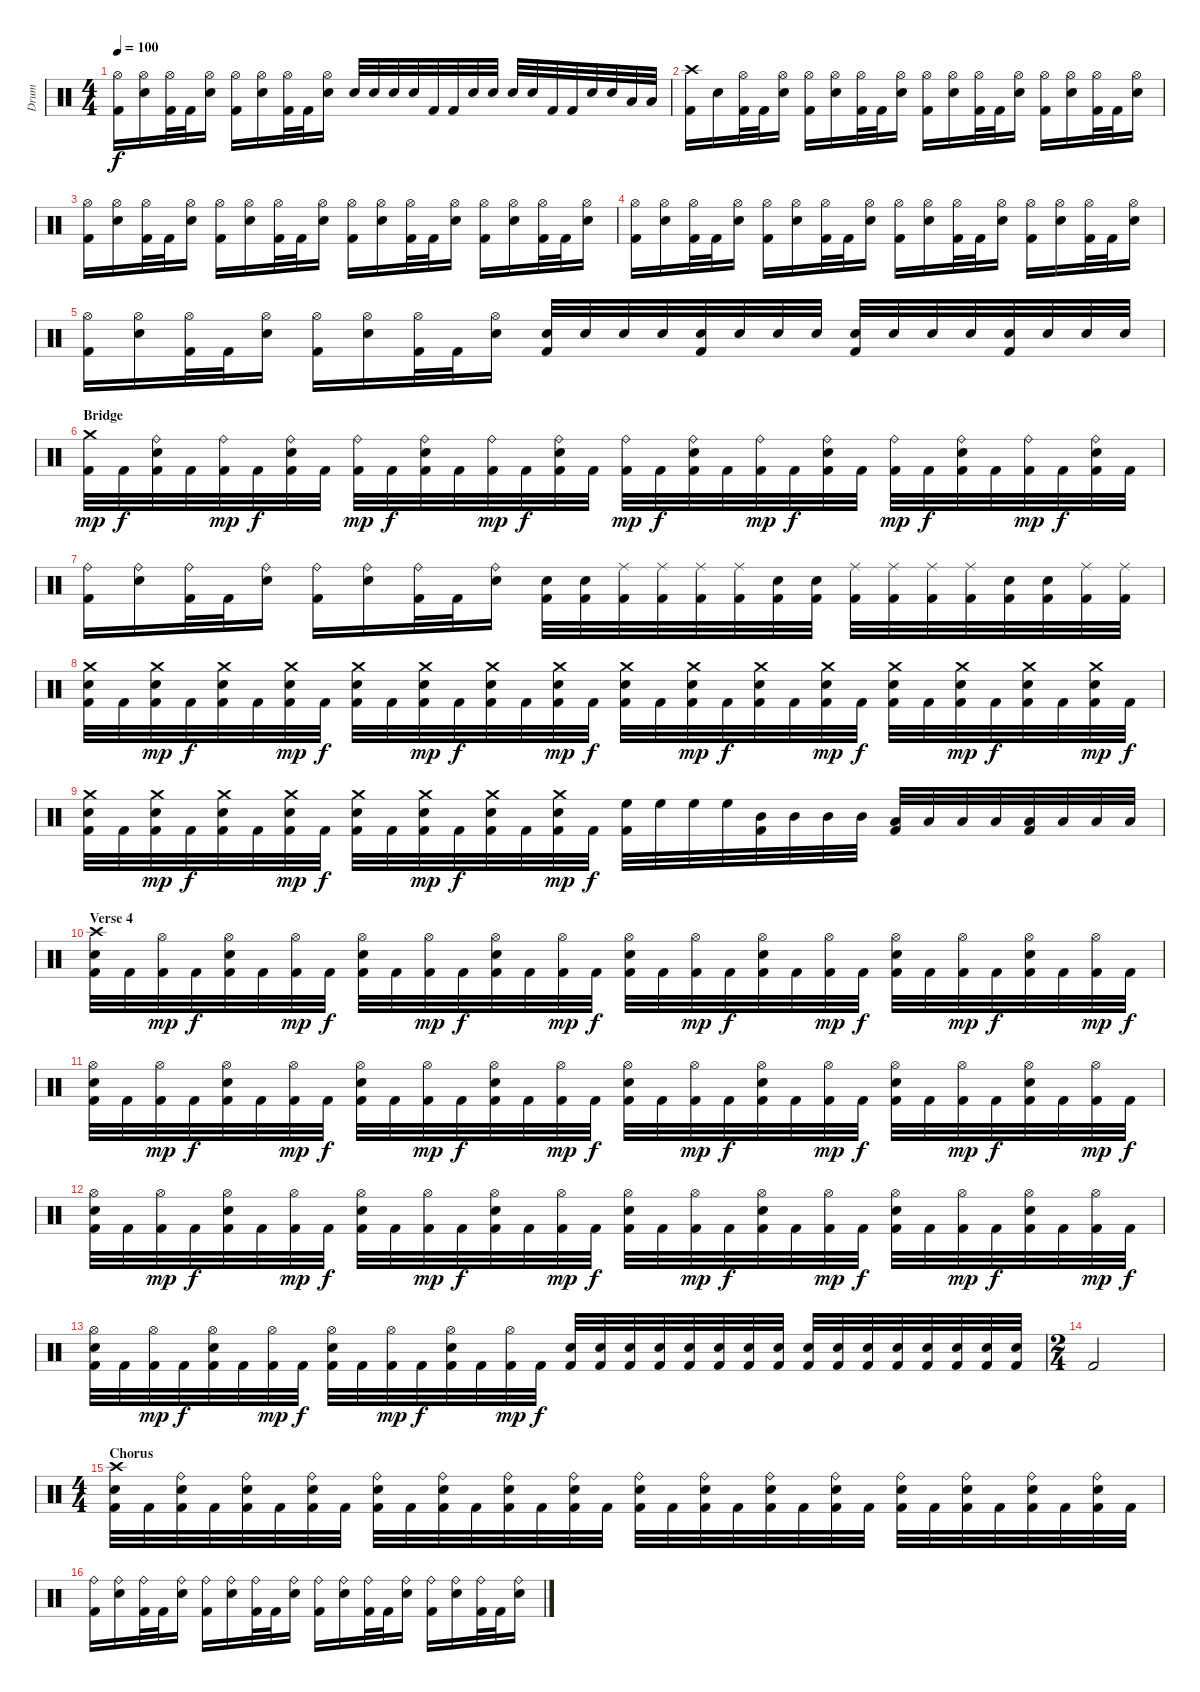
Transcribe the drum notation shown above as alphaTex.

\track ("Drum" "Drum") {instrument percussion}
\staff {score}
\articulation defaults
\ts (4 4)
\tempo 100
\clef neutral
\ks c
("Hi-Hat (open)" "Kick (hit) 2").16{dy f} ("Hi-Hat (open)" "Snare (hit) 2").16 ("Hi-Hat (open)" "Kick (hit) 2").32 "Kick (hit) 2".32 ("Hi-Hat (open)" "Snare (hit) 2").16 ("Hi-Hat (open)" "Kick (hit) 2").16 ("Hi-Hat (open)" "Snare (hit) 2").16 ("Hi-Hat (open)" "Kick (hit) 2").32 "Kick (hit) 2".32 ("Hi-Hat (open)" "Snare (hit) 2").16 "Snare (hit) 2".32 "Snare (hit) 2".32 "Snare (hit) 2".32 "Snare (hit) 2".32 "Kick (hit) 2".32 "Kick (hit) 2".32 "Snare (hit) 2".32 "Snare (hit) 2".32 "Snare (hit) 2".32 "Snare (hit) 2".32 "Kick (hit) 2".32 "Kick (hit) 2".32 "Snare (hit) 2".32 "Snare (hit) 2".32 "Low Floor Tom (hit)".32 "Low Floor Tom (hit)".32 |
("Crash high (hit)" "Kick (hit) 2").16 "Snare (hit) 2".16 ("Hi-Hat (open)" "Kick (hit) 2").32 "Kick (hit) 2".32 ("Hi-Hat (open)" "Snare (hit) 2").16 ("Hi-Hat (open)" "Kick (hit) 2").16 ("Hi-Hat (open)" "Snare (hit) 2").16 ("Hi-Hat (open)" "Kick (hit) 2").32 "Kick (hit) 2".32 ("Hi-Hat (open)" "Snare (hit) 2").16 ("Hi-Hat (open)" "Kick (hit) 2").16 ("Hi-Hat (open)" "Snare (hit) 2").16 ("Hi-Hat (open)" "Kick (hit) 2").32 "Kick (hit) 2".32 ("Hi-Hat (open)" "Snare (hit) 2").16 ("Hi-Hat (open)" "Kick (hit) 2").16 ("Hi-Hat (open)" "Snare (hit) 2").16 ("Hi-Hat (open)" "Kick (hit) 2").32 "Kick (hit) 2".32 ("Hi-Hat (open)" "Snare (hit) 2").16 |
("Hi-Hat (open)" "Kick (hit) 2").16 ("Hi-Hat (open)" "Snare (hit) 2").16 ("Hi-Hat (open)" "Kick (hit) 2").32 "Kick (hit) 2".32 ("Hi-Hat (open)" "Snare (hit) 2").16 ("Hi-Hat (open)" "Kick (hit) 2").16 ("Hi-Hat (open)" "Snare (hit) 2").16 ("Hi-Hat (open)" "Kick (hit) 2").32 "Kick (hit) 2".32 ("Hi-Hat (open)" "Snare (hit) 2").16 ("Hi-Hat (open)" "Kick (hit) 2").16 ("Hi-Hat (open)" "Snare (hit) 2").16 ("Hi-Hat (open)" "Kick (hit) 2").32 "Kick (hit) 2".32 ("Hi-Hat (open)" "Snare (hit) 2").16 ("Hi-Hat (open)" "Kick (hit) 2").16 ("Hi-Hat (open)" "Snare (hit) 2").16 ("Hi-Hat (open)" "Kick (hit) 2").32 "Kick (hit) 2".32 ("Hi-Hat (open)" "Snare (hit) 2").16 |
("Hi-Hat (open)" "Kick (hit) 2").16 ("Hi-Hat (open)" "Snare (hit) 2").16 ("Hi-Hat (open)" "Kick (hit) 2").32 "Kick (hit) 2".32 ("Hi-Hat (open)" "Snare (hit) 2").16 ("Hi-Hat (open)" "Kick (hit) 2").16 ("Hi-Hat (open)" "Snare (hit) 2").16 ("Hi-Hat (open)" "Kick (hit) 2").32 "Kick (hit) 2".32 ("Hi-Hat (open)" "Snare (hit) 2").16 ("Hi-Hat (open)" "Kick (hit) 2").16 ("Hi-Hat (open)" "Snare (hit) 2").16 ("Hi-Hat (open)" "Kick (hit) 2").32 "Kick (hit) 2".32 ("Hi-Hat (open)" "Snare (hit) 2").16 ("Hi-Hat (open)" "Kick (hit) 2").16 ("Hi-Hat (open)" "Snare (hit) 2").16 ("Hi-Hat (open)" "Kick (hit) 2").32 "Kick (hit) 2".32 ("Hi-Hat (open)" "Snare (hit) 2").16 |
("Hi-Hat (open)" "Kick (hit) 2").16 ("Hi-Hat (open)" "Snare (hit) 2").16 ("Hi-Hat (open)" "Kick (hit) 2").32 "Kick (hit) 2".32 ("Hi-Hat (open)" "Snare (hit) 2").16 ("Hi-Hat (open)" "Kick (hit) 2").16 ("Hi-Hat (open)" "Snare (hit) 2").16 ("Hi-Hat (open)" "Kick (hit) 2").32 "Kick (hit) 2".32 ("Hi-Hat (open)" "Snare (hit) 2").16 ("Snare (hit) 2" "Kick (hit) 2").32 "Snare (hit) 2".32 "Snare (hit) 2".32 "Snare (hit) 2".32 ("Snare (hit) 2" "Kick (hit) 2").32 "Snare (hit) 2".32 "Snare (hit) 2".32 "Snare (hit) 2".32 ("Snare (hit) 2" "Kick (hit) 2").32 "Snare (hit) 2".32 "Snare (hit) 2".32 "Snare (hit) 2".32 ("Snare (hit) 2" "Kick (hit) 2").32 "Snare (hit) 2".32 "Snare (hit) 2".32 "Snare (hit) 2".32 |
\section ("" "Bridge")
("Crash medium (hit)" "Kick (hit) 2").32{dy mp} "Kick (hit) 2".32{dy f} ("Ride (bell)" "Snare (hit) 2" "Kick (hit) 2").32 "Kick (hit) 2".32 ("Ride (bell)" "Kick (hit) 2").32{dy mp} "Kick (hit) 2".32{dy f} ("Ride (bell)" "Snare (hit) 2" "Kick (hit) 2").32 "Kick (hit) 2".32 ("Ride (bell)" "Kick (hit) 2").32{dy mp} "Kick (hit) 2".32{dy f} ("Ride (bell)" "Snare (hit) 2" "Kick (hit) 2").32 "Kick (hit) 2".32 ("Ride (bell)" "Kick (hit) 2").32{dy mp} "Kick (hit) 2".32{dy f} ("Ride (bell)" "Snare (hit) 2" "Kick (hit) 2").32 "Kick (hit) 2".32 ("Ride (bell)" "Kick (hit) 2").32{dy mp} "Kick (hit) 2".32{dy f} ("Ride (bell)" "Snare (hit) 2" "Kick (hit) 2").32 "Kick (hit) 2".32 ("Ride (bell)" "Kick (hit) 2").32{dy mp} "Kick (hit) 2".32{dy f} ("Ride (bell)" "Snare (hit) 2" "Kick (hit) 2").32 "Kick (hit) 2".32 ("Ride (bell)" "Kick (hit) 2").32{dy mp} "Kick (hit) 2".32{dy f} ("Ride (bell)" "Snare (hit) 2" "Kick (hit) 2").32 "Kick (hit) 2".32 ("Ride (bell)" "Kick (hit) 2").32{dy mp} "Kick (hit) 2".32{dy f} ("Ride (bell)" "Snare (hit) 2" "Kick (hit) 2").32 "Kick (hit) 2".32 |
("Ride (bell)" "Kick (hit) 2").16 ("Ride (bell)" "Snare (hit) 2").16 ("Ride (bell)" "Kick (hit) 2").32 "Kick (hit) 2".32 ("Ride (bell)" "Snare (hit) 2").16 ("Ride (bell)" "Kick (hit) 2").16 ("Ride (bell)" "Snare (hit) 2").16 ("Ride (bell)" "Kick (hit) 2").32 "Kick (hit) 2".32 ("Ride (bell)" "Snare (hit) 2").16 ("Snare (hit) 2" "Kick (hit) 2").32 ("Snare (hit) 2" "Kick (hit) 2").32 ("Ride (middle)" "Kick (hit) 2").32 ("Ride (middle)" "Kick (hit) 2").32 ("Ride (middle)" "Kick (hit) 2").32 ("Ride (middle)" "Kick (hit) 2").32 ("Snare (hit) 2" "Kick (hit) 2").32 ("Snare (hit) 2" "Kick (hit) 2").32 ("Ride (middle)" "Kick (hit) 2").32 ("Ride (middle)" "Kick (hit) 2").32 ("Ride (middle)" "Kick (hit) 2").32 ("Ride (middle)" "Kick (hit) 2").32 ("Snare (hit) 2" "Kick (hit) 2").32 ("Snare (hit) 2" "Kick (hit) 2").32 ("Ride (middle)" "Kick (hit) 2").32 ("Ride (middle)" "Kick (hit) 2").32 |
("Crash medium (hit)" "Snare (hit) 2" "Kick (hit) 2").32 "Kick (hit) 2".32 ("Crash medium (hit)" "Snare (hit) 2" "Kick (hit) 2").32{dy mp} "Kick (hit) 2".32{dy f} ("Crash medium (hit)" "Snare (hit) 2" "Kick (hit) 2").32 "Kick (hit) 2".32 ("Crash medium (hit)" "Snare (hit) 2" "Kick (hit) 2").32{dy mp} "Kick (hit) 2".32{dy f} ("Crash medium (hit)" "Snare (hit) 2" "Kick (hit) 2").32 "Kick (hit) 2".32 ("Crash medium (hit)" "Snare (hit) 2" "Kick (hit) 2").32{dy mp} "Kick (hit) 2".32{dy f} ("Crash medium (hit)" "Snare (hit) 2" "Kick (hit) 2").32 "Kick (hit) 2".32 ("Crash medium (hit)" "Snare (hit) 2" "Kick (hit) 2").32{dy mp} "Kick (hit) 2".32{dy f} ("Crash medium (hit)" "Snare (hit) 2" "Kick (hit) 2").32 "Kick (hit) 2".32 ("Crash medium (hit)" "Snare (hit) 2" "Kick (hit) 2").32{dy mp} "Kick (hit) 2".32{dy f} ("Crash medium (hit)" "Snare (hit) 2" "Kick (hit) 2").32 "Kick (hit) 2".32 ("Crash medium (hit)" "Snare (hit) 2" "Kick (hit) 2").32{dy mp} "Kick (hit) 2".32{dy f} ("Crash medium (hit)" "Snare (hit) 2" "Kick (hit) 2").32 "Kick (hit) 2".32 ("Crash medium (hit)" "Snare (hit) 2" "Kick (hit) 2").32{dy mp} "Kick (hit) 2".32{dy f} ("Crash medium (hit)" "Snare (hit) 2" "Kick (hit) 2").32 "Kick (hit) 2".32 ("Crash medium (hit)" "Snare (hit) 2" "Kick (hit) 2").32{dy mp} "Kick (hit) 2".32{dy f} |
("Crash medium (hit)" "Snare (hit) 2" "Kick (hit) 2").32 "Kick (hit) 2".32 ("Crash medium (hit)" "Snare (hit) 2" "Kick (hit) 2").32{dy mp} "Kick (hit) 2".32{dy f} ("Crash medium (hit)" "Snare (hit) 2" "Kick (hit) 2").32 "Kick (hit) 2".32 ("Crash medium (hit)" "Snare (hit) 2" "Kick (hit) 2").32{dy mp} "Kick (hit) 2".32{dy f} ("Crash medium (hit)" "Snare (hit) 2" "Kick (hit) 2").32 "Kick (hit) 2".32 ("Crash medium (hit)" "Snare (hit) 2" "Kick (hit) 2").32{dy mp} "Kick (hit) 2".32{dy f} ("Crash medium (hit)" "Snare (hit) 2" "Kick (hit) 2").32 "Kick (hit) 2".32 ("Crash medium (hit)" "Snare (hit) 2" "Kick (hit) 2").32{dy mp} "Kick (hit) 2".32{dy f} ("High Floor Tom (hit)" "Kick (hit) 2").32 "High Floor Tom (hit)".32 "High Floor Tom (hit)".32 "High Floor Tom (hit)".32 ("Mid Tom (hit)" "Kick (hit) 2").32 "Mid Tom (hit)".32 "Mid Tom (hit)".32 "Mid Tom (hit)".32 ("Low Tom (hit)" "Kick (hit) 2").32 "Low Tom (hit)".32 "Low Tom (hit)".32 "Low Tom (hit)".32 ("Low Floor Tom (hit)" "Kick (hit) 2").32 "Low Floor Tom (hit)".32 "Low Floor Tom (hit)".32 "Low Floor Tom (hit)".32 |
\section ("" "Verse 4")
("Crash high (hit)" "Snare (hit) 2" "Kick (hit) 2").32 "Kick (hit) 2".32 ("Hi-Hat (open)" "Kick (hit) 2").32{dy mp} "Kick (hit) 2".32{dy f} ("Hi-Hat (open)" "Snare (hit) 2" "Kick (hit) 2").32 "Kick (hit) 2".32 ("Hi-Hat (open)" "Kick (hit) 2").32{dy mp} "Kick (hit) 2".32{dy f} ("Hi-Hat (open)" "Snare (hit) 2" "Kick (hit) 2").32 "Kick (hit) 2".32 ("Hi-Hat (open)" "Kick (hit) 2").32{dy mp} "Kick (hit) 2".32{dy f} ("Hi-Hat (open)" "Snare (hit) 2" "Kick (hit) 2").32 "Kick (hit) 2".32 ("Hi-Hat (open)" "Kick (hit) 2").32{dy mp} "Kick (hit) 2".32{dy f} ("Hi-Hat (open)" "Snare (hit) 2" "Kick (hit) 2").32 "Kick (hit) 2".32 ("Hi-Hat (open)" "Kick (hit) 2").32{dy mp} "Kick (hit) 2".32{dy f} ("Hi-Hat (open)" "Snare (hit) 2" "Kick (hit) 2").32 "Kick (hit) 2".32 ("Hi-Hat (open)" "Kick (hit) 2").32{dy mp} "Kick (hit) 2".32{dy f} ("Hi-Hat (open)" "Snare (hit) 2" "Kick (hit) 2").32 "Kick (hit) 2".32 ("Hi-Hat (open)" "Kick (hit) 2").32{dy mp} "Kick (hit) 2".32{dy f} ("Hi-Hat (open)" "Snare (hit) 2" "Kick (hit) 2").32 "Kick (hit) 2".32 ("Hi-Hat (open)" "Kick (hit) 2").32{dy mp} "Kick (hit) 2".32{dy f} |
("Hi-Hat (open)" "Snare (hit) 2" "Kick (hit) 2").32 "Kick (hit) 2".32 ("Hi-Hat (open)" "Kick (hit) 2").32{dy mp} "Kick (hit) 2".32{dy f} ("Hi-Hat (open)" "Snare (hit) 2" "Kick (hit) 2").32 "Kick (hit) 2".32 ("Hi-Hat (open)" "Kick (hit) 2").32{dy mp} "Kick (hit) 2".32{dy f} ("Hi-Hat (open)" "Snare (hit) 2" "Kick (hit) 2").32 "Kick (hit) 2".32 ("Hi-Hat (open)" "Kick (hit) 2").32{dy mp} "Kick (hit) 2".32{dy f} ("Hi-Hat (open)" "Snare (hit) 2" "Kick (hit) 2").32 "Kick (hit) 2".32 ("Hi-Hat (open)" "Kick (hit) 2").32{dy mp} "Kick (hit) 2".32{dy f} ("Hi-Hat (open)" "Snare (hit) 2" "Kick (hit) 2").32 "Kick (hit) 2".32 ("Hi-Hat (open)" "Kick (hit) 2").32{dy mp} "Kick (hit) 2".32{dy f} ("Hi-Hat (open)" "Snare (hit) 2" "Kick (hit) 2").32 "Kick (hit) 2".32 ("Hi-Hat (open)" "Kick (hit) 2").32{dy mp} "Kick (hit) 2".32{dy f} ("Hi-Hat (open)" "Snare (hit) 2" "Kick (hit) 2").32 "Kick (hit) 2".32 ("Hi-Hat (open)" "Kick (hit) 2").32{dy mp} "Kick (hit) 2".32{dy f} ("Hi-Hat (open)" "Snare (hit) 2" "Kick (hit) 2").32 "Kick (hit) 2".32 ("Hi-Hat (open)" "Kick (hit) 2").32{dy mp} "Kick (hit) 2".32{dy f} |
("Hi-Hat (open)" "Snare (hit) 2" "Kick (hit) 2").32 "Kick (hit) 2".32 ("Hi-Hat (open)" "Kick (hit) 2").32{dy mp} "Kick (hit) 2".32{dy f} ("Hi-Hat (open)" "Snare (hit) 2" "Kick (hit) 2").32 "Kick (hit) 2".32 ("Hi-Hat (open)" "Kick (hit) 2").32{dy mp} "Kick (hit) 2".32{dy f} ("Hi-Hat (open)" "Snare (hit) 2" "Kick (hit) 2").32 "Kick (hit) 2".32 ("Hi-Hat (open)" "Kick (hit) 2").32{dy mp} "Kick (hit) 2".32{dy f} ("Hi-Hat (open)" "Snare (hit) 2" "Kick (hit) 2").32 "Kick (hit) 2".32 ("Hi-Hat (open)" "Kick (hit) 2").32{dy mp} "Kick (hit) 2".32{dy f} ("Hi-Hat (open)" "Snare (hit) 2" "Kick (hit) 2").32 "Kick (hit) 2".32 ("Hi-Hat (open)" "Kick (hit) 2").32{dy mp} "Kick (hit) 2".32{dy f} ("Hi-Hat (open)" "Snare (hit) 2" "Kick (hit) 2").32 "Kick (hit) 2".32 ("Hi-Hat (open)" "Kick (hit) 2").32{dy mp} "Kick (hit) 2".32{dy f} ("Hi-Hat (open)" "Snare (hit) 2" "Kick (hit) 2").32 "Kick (hit) 2".32 ("Hi-Hat (open)" "Kick (hit) 2").32{dy mp} "Kick (hit) 2".32{dy f} ("Hi-Hat (open)" "Snare (hit) 2" "Kick (hit) 2").32 "Kick (hit) 2".32 ("Hi-Hat (open)" "Kick (hit) 2").32{dy mp} "Kick (hit) 2".32{dy f} |
("Hi-Hat (open)" "Snare (hit) 2" "Kick (hit) 2").32 "Kick (hit) 2".32 ("Hi-Hat (open)" "Kick (hit) 2").32{dy mp} "Kick (hit) 2".32{dy f} ("Hi-Hat (open)" "Snare (hit) 2" "Kick (hit) 2").32 "Kick (hit) 2".32 ("Hi-Hat (open)" "Kick (hit) 2").32{dy mp} "Kick (hit) 2".32{dy f} ("Hi-Hat (open)" "Snare (hit) 2" "Kick (hit) 2").32 "Kick (hit) 2".32 ("Hi-Hat (open)" "Kick (hit) 2").32{dy mp} "Kick (hit) 2".32{dy f} ("Hi-Hat (open)" "Snare (hit) 2" "Kick (hit) 2").32 "Kick (hit) 2".32 ("Hi-Hat (open)" "Kick (hit) 2").32{dy mp} "Kick (hit) 2".32{dy f} ("Snare (hit) 2" "Kick (hit) 2").32 ("Snare (hit) 2" "Kick (hit) 2").32 ("Snare (hit) 2" "Kick (hit) 2").32 ("Snare (hit) 2" "Kick (hit) 2").32 ("Snare (hit) 2" "Kick (hit) 2").32 ("Snare (hit) 2" "Kick (hit) 2").32 ("Snare (hit) 2" "Kick (hit) 2").32 ("Snare (hit) 2" "Kick (hit) 2").32 ("Snare (hit) 2" "Kick (hit) 2").32 ("Snare (hit) 2" "Kick (hit) 2").32 ("Snare (hit) 2" "Kick (hit) 2").32 ("Snare (hit) 2" "Kick (hit) 2").32 ("Snare (hit) 2" "Kick (hit) 2").32 ("Snare (hit) 2" "Kick (hit) 2").32 ("Snare (hit) 2" "Kick (hit) 2").32 ("Snare (hit) 2" "Kick (hit) 2").32 |
\ts (2 4)
"Kick (hit) 2".2 |
\ts (4 4)
\section ("" "Chorus")
("Crash high (hit)" "Snare (hit) 2" "Kick (hit) 2").32 "Kick (hit) 2".32 ("Ride (bell)" "Snare (hit) 2" "Kick (hit) 2").32 "Kick (hit) 2".32 ("Ride (bell)" "Snare (hit) 2" "Kick (hit) 2").32 "Kick (hit) 2".32 ("Ride (bell)" "Snare (hit) 2" "Kick (hit) 2").32 "Kick (hit) 2".32 ("Ride (bell)" "Snare (hit) 2" "Kick (hit) 2").32 "Kick (hit) 2".32 ("Ride (bell)" "Snare (hit) 2" "Kick (hit) 2").32 "Kick (hit) 2".32 ("Ride (bell)" "Snare (hit) 2" "Kick (hit) 2").32 "Kick (hit) 2".32 ("Ride (bell)" "Snare (hit) 2" "Kick (hit) 2").32 "Kick (hit) 2".32 ("Ride (bell)" "Snare (hit) 2" "Kick (hit) 2").32 "Kick (hit) 2".32 ("Ride (bell)" "Snare (hit) 2" "Kick (hit) 2").32 "Kick (hit) 2".32 ("Ride (bell)" "Snare (hit) 2" "Kick (hit) 2").32 "Kick (hit) 2".32 ("Ride (bell)" "Snare (hit) 2" "Kick (hit) 2").32 "Kick (hit) 2".32 ("Ride (bell)" "Snare (hit) 2" "Kick (hit) 2").32 "Kick (hit) 2".32 ("Ride (bell)" "Snare (hit) 2" "Kick (hit) 2").32 "Kick (hit) 2".32 ("Ride (bell)" "Snare (hit) 2" "Kick (hit) 2").32 "Kick (hit) 2".32 ("Ride (bell)" "Snare (hit) 2" "Kick (hit) 2").32 "Kick (hit) 2".32 |
("Ride (bell)" "Kick (hit) 2").16 ("Ride (bell)" "Snare (hit) 2").16 ("Ride (bell)" "Kick (hit) 2").32 "Kick (hit) 2".32 ("Ride (bell)" "Snare (hit) 2").16 ("Ride (bell)" "Kick (hit) 2").16 ("Ride (bell)" "Snare (hit) 2").16 ("Ride (bell)" "Kick (hit) 2").32 "Kick (hit) 2".32 ("Ride (bell)" "Snare (hit) 2").16 ("Ride (bell)" "Kick (hit) 2").16 ("Ride (bell)" "Snare (hit) 2").16 ("Ride (bell)" "Kick (hit) 2").32 "Kick (hit) 2".32 ("Ride (bell)" "Snare (hit) 2").16 ("Ride (bell)" "Kick (hit) 2").16 ("Ride (bell)" "Snare (hit) 2").16 ("Ride (bell)" "Kick (hit) 2").32 "Kick (hit) 2".32 ("Ride (bell)" "Snare (hit) 2").16
